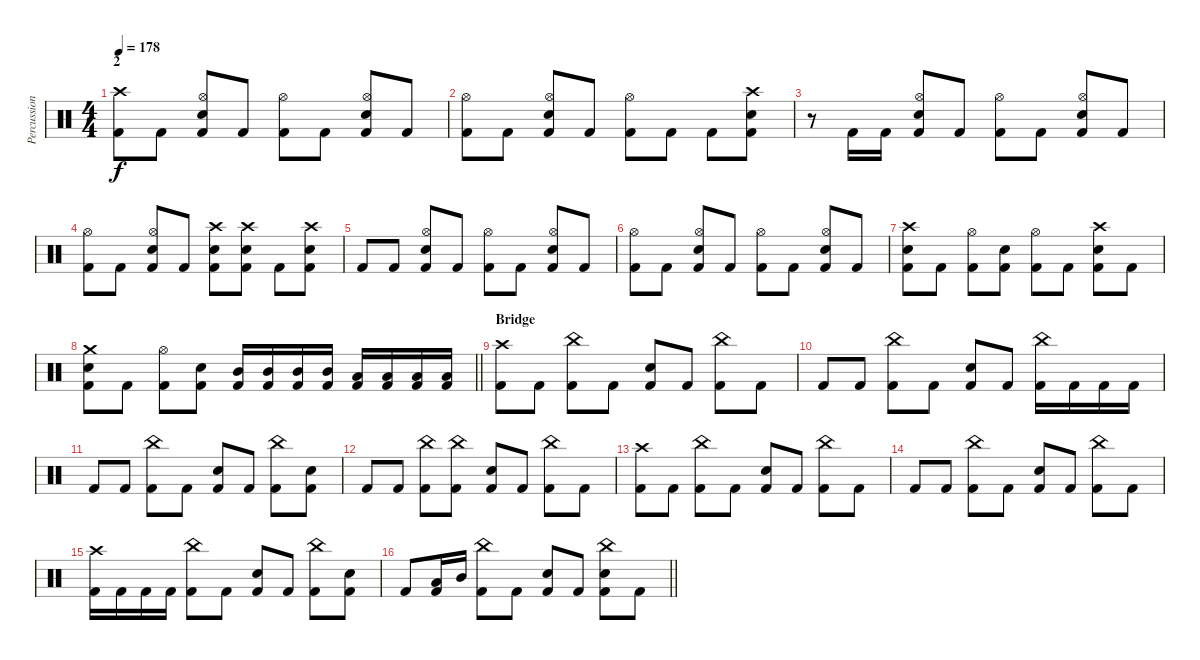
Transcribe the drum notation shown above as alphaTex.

\track ("Percussion" "Percussion") {instrument percussion}
\staff {score}
\articulation defaults
\ts (4 4)
\section ("" "2")
\tempo 178
\clef neutral
\ks c
("Crash high (hit)" "Kick (hit) 2").8{dy f} "Kick (hit) 2".8 ("Hi-Hat (open)" "Electric Snare (hit)" "Kick (hit) 2").8 "Kick (hit) 2".8 ("Hi-Hat (open)" "Kick (hit) 2").8 "Kick (hit) 2".8 ("Hi-Hat (open)" "Electric Snare (hit)" "Kick (hit) 2").8 "Kick (hit) 2".8 |
("Hi-Hat (open)" "Kick (hit) 2").8 "Kick (hit) 2".8 ("Hi-Hat (open)" "Electric Snare (hit)" "Kick (hit) 2").8 "Kick (hit) 2".8 ("Hi-Hat (open)" "Kick (hit) 2").8 "Kick (hit) 2".8 "Kick (hit) 2".8 ("Crash high (hit)" "Electric Snare (hit)" "Kick (hit) 2").8 |
r.8 "Kick (hit) 2".16{beam Down} "Kick (hit) 2".16{beam Down} ("Hi-Hat (open)" "Electric Snare (hit)" "Kick (hit) 2").8 "Kick (hit) 2".8 ("Hi-Hat (open)" "Kick (hit) 2").8 "Kick (hit) 2".8 ("Hi-Hat (open)" "Electric Snare (hit)" "Kick (hit) 2").8 "Kick (hit) 2".8 |
("Hi-Hat (open)" "Kick (hit) 2").8 "Kick (hit) 2".8 ("Hi-Hat (open)" "Electric Snare (hit)" "Kick (hit) 2").8 "Kick (hit) 2".8 ("Crash high (hit)" "Electric Snare (hit)" "Kick (hit) 2").8 ("Crash high (hit)" "Electric Snare (hit)" "Kick (hit) 2").8 "Kick (hit) 2".8 ("Crash high (hit)" "Electric Snare (hit)" "Kick (hit) 2").8 |
"Kick (hit) 2".8 "Kick (hit) 2".8 ("Hi-Hat (open)" "Electric Snare (hit)" "Kick (hit) 2").8 "Kick (hit) 2".8 ("Hi-Hat (open)" "Kick (hit) 2").8 "Kick (hit) 2".8 ("Hi-Hat (open)" "Electric Snare (hit)" "Kick (hit) 2").8 "Kick (hit) 2".8 |
("Hi-Hat (open)" "Kick (hit) 2").8 "Kick (hit) 2".8 ("Hi-Hat (open)" "Electric Snare (hit)" "Kick (hit) 2").8 "Kick (hit) 2".8 ("Hi-Hat (open)" "Kick (hit) 2").8 "Kick (hit) 2".8 ("Hi-Hat (open)" "Electric Snare (hit)" "Kick (hit) 2").8 "Kick (hit) 2".8 |
("Crash high (hit)" "Electric Snare (hit)" "Kick (hit) 2").8 "Kick (hit) 2".8 ("Hi-Hat (open)" "Kick (hit) 2").8 ("Electric Snare (hit)" "Kick (hit) 2").8 ("Hi-Hat (open)" "Kick (hit) 2").8 "Kick (hit) 2".8 ("Crash high (hit)" "Electric Snare (hit)" "Kick (hit) 2").8 "Kick (hit) 2".8 |
\barLineRight lightlight
("Crash medium (hit)" "Electric Snare (hit)" "Kick (hit) 2").8 "Kick (hit) 2".8 ("Hi-Hat (open)" "Kick (hit) 2").8 ("Electric Snare (hit)" "Kick (hit) 2").8 ("Mid Tom (hit)" "Kick (hit) 2").16 ("Mid Tom (hit)" "Kick (hit) 2").16 ("Mid Tom (hit)" "Kick (hit) 2").16 ("Mid Tom (hit)" "Kick (hit) 2").16 ("Low Tom (hit)" "Kick (hit) 2").16 ("Low Tom (hit)" "Kick (hit) 2").16 ("Low Tom (hit)" "Kick (hit) 2").16 ("Low Tom (hit)" "Kick (hit) 2").16 |
\section ("" "Bridge")
("Crash high (hit)" "Kick (hit) 2").8 "Kick (hit) 2".8 ("China (hit)" "Kick (hit) 2").8 "Kick (hit) 2".8 ("Electric Snare (hit)" "Kick (hit) 2").8 "Kick (hit) 2".8 ("China (hit)" "Kick (hit) 2").8 "Kick (hit) 2".8 |
"Kick (hit) 2".8 "Kick (hit) 2".8 ("China (hit)" "Kick (hit) 2").8 "Kick (hit) 2".8 ("Electric Snare (hit)" "Kick (hit) 2").8 "Kick (hit) 2".8 ("China (hit)" "Kick (hit) 2").16 "Kick (hit) 2".16 "Kick (hit) 2".16 "Kick (hit) 2".16 |
"Kick (hit) 2".8 "Kick (hit) 2".8 ("China (hit)" "Kick (hit) 2").8 "Kick (hit) 2".8 ("Electric Snare (hit)" "Kick (hit) 2").8 "Kick (hit) 2".8 ("China (hit)" "Kick (hit) 2").8 ("Electric Snare (hit)" "Kick (hit) 2").8 |
"Kick (hit) 2".8 "Kick (hit) 2".8 ("China (hit)" "Kick (hit) 2").8 ("China (hit)" "Kick (hit) 2").8 ("Electric Snare (hit)" "Kick (hit) 2").8 "Kick (hit) 2".8 ("China (hit)" "Kick (hit) 2").8 "Kick (hit) 2".8 |
("Crash high (hit)" "Kick (hit) 2").8 "Kick (hit) 2".8 ("China (hit)" "Kick (hit) 2").8 "Kick (hit) 2".8 ("Electric Snare (hit)" "Kick (hit) 2").8 "Kick (hit) 2".8 ("China (hit)" "Kick (hit) 2").8 "Kick (hit) 2".8 |
"Kick (hit) 2".8 "Kick (hit) 2".8 ("China (hit)" "Kick (hit) 2").8 "Kick (hit) 2".8 ("Electric Snare (hit)" "Kick (hit) 2").8 "Kick (hit) 2".8 ("China (hit)" "Kick (hit) 2").8 "Kick (hit) 2".8 |
("Crash high (hit)" "Kick (hit) 2").16 "Kick (hit) 2".16 "Kick (hit) 2".16 "Kick (hit) 2".16 ("China (hit)" "Kick (hit) 2").8 "Kick (hit) 2".8 ("Electric Snare (hit)" "Kick (hit) 2").8 "Kick (hit) 2".8 ("China (hit)" "Kick (hit) 2").8 ("Electric Snare (hit)" "Kick (hit) 2").8 |
\barLineRight lightlight "Kick (hit) 2".8
("Low Tom (hit)" "Kick (hit) 2").16 "Mid Tom (hit)".16 ("China (hit)" "Kick (hit) 2").8 "Kick (hit) 2".8 ("Electric Snare (hit)" "Kick (hit) 2").8 "Kick (hit) 2".8 ("China (hit)" "Electric Snare (hit)" "Kick (hit) 2").8 "Kick (hit) 2".8
